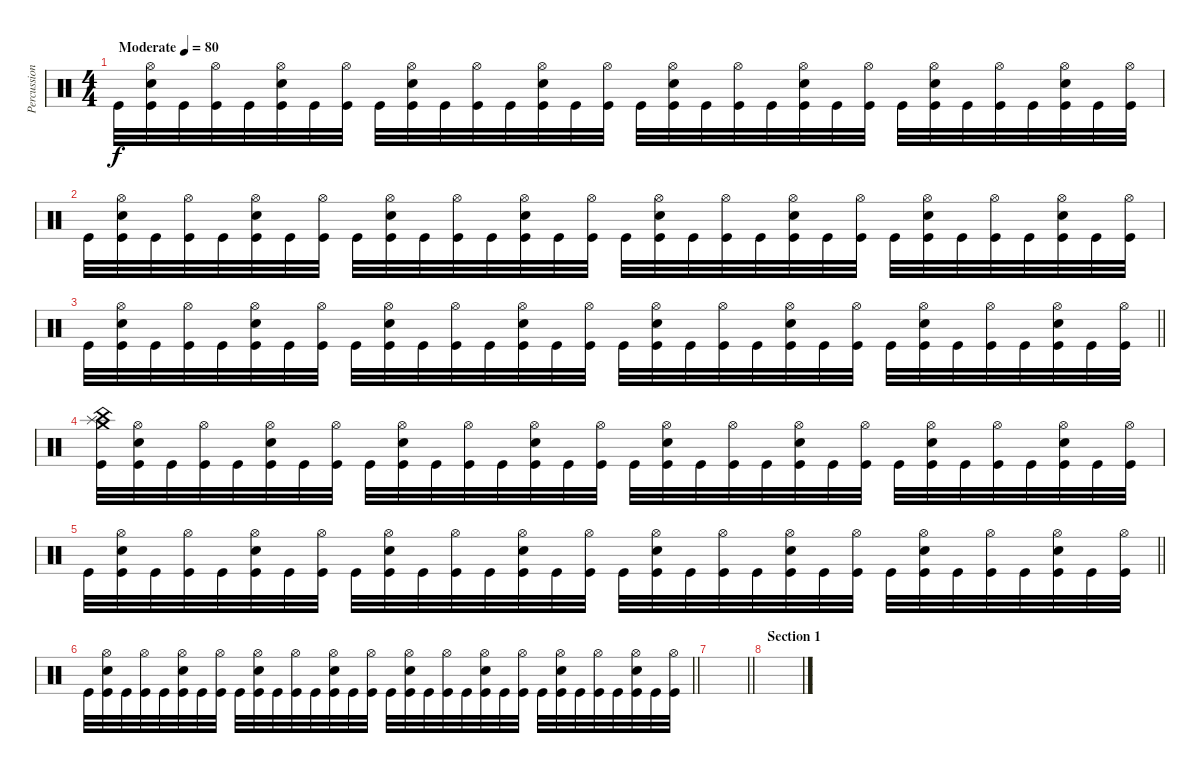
\track ("Percussion" "Percussion") {instrument percussion}
\staff {score}
\articulation defaults
\ts (4 4)
\tempo (80 "Moderate")
\clef neutral
\ks c "Kick (hit)".32{dy f}
("Snare (hit) 2" "Hi-Hat (open)" "Kick (hit)").32 "Kick (hit)".32 ("Hi-Hat (open)" "Kick (hit)").32 "Kick (hit)".32 ("Snare (hit) 2" "Hi-Hat (open)" "Kick (hit)").32 "Kick (hit)".32 ("Hi-Hat (open)" "Kick (hit)").32 "Kick (hit)".32 ("Snare (hit) 2" "Hi-Hat (open)" "Kick (hit)").32 "Kick (hit)".32 ("Hi-Hat (open)" "Kick (hit)").32 "Kick (hit)".32 ("Snare (hit) 2" "Hi-Hat (open)" "Kick (hit)").32 "Kick (hit)".32 ("Hi-Hat (open)" "Kick (hit)").32 "Kick (hit)".32 ("Snare (hit) 2" "Hi-Hat (open)" "Kick (hit)").32 "Kick (hit)".32 ("Hi-Hat (open)" "Kick (hit)").32 "Kick (hit)".32 ("Snare (hit) 2" "Hi-Hat (open)" "Kick (hit)").32 "Kick (hit)".32 ("Hi-Hat (open)" "Kick (hit)").32 "Kick (hit)".32 ("Snare (hit) 2" "Hi-Hat (open)" "Kick (hit)").32 "Kick (hit)".32 ("Hi-Hat (open)" "Kick (hit)").32 "Kick (hit)".32 ("Snare (hit) 2" "Hi-Hat (open)" "Kick (hit)").32 "Kick (hit)".32 ("Hi-Hat (open)" "Kick (hit)").32 |
"Kick (hit)".32 ("Snare (hit) 2" "Hi-Hat (open)" "Kick (hit)").32 "Kick (hit)".32 ("Hi-Hat (open)" "Kick (hit)").32 "Kick (hit)".32 ("Snare (hit) 2" "Hi-Hat (open)" "Kick (hit)").32 "Kick (hit)".32 ("Hi-Hat (open)" "Kick (hit)").32 "Kick (hit)".32 ("Snare (hit) 2" "Hi-Hat (open)" "Kick (hit)").32 "Kick (hit)".32 ("Hi-Hat (open)" "Kick (hit)").32 "Kick (hit)".32 ("Snare (hit) 2" "Hi-Hat (open)" "Kick (hit)").32 "Kick (hit)".32 ("Hi-Hat (open)" "Kick (hit)").32 "Kick (hit)".32 ("Snare (hit) 2" "Hi-Hat (open)" "Kick (hit)").32 "Kick (hit)".32 ("Hi-Hat (open)" "Kick (hit)").32 "Kick (hit)".32 ("Snare (hit) 2" "Hi-Hat (open)" "Kick (hit)").32 "Kick (hit)".32 ("Hi-Hat (open)" "Kick (hit)").32 "Kick (hit)".32 ("Snare (hit) 2" "Hi-Hat (open)" "Kick (hit)").32 "Kick (hit)".32 ("Hi-Hat (open)" "Kick (hit)").32 "Kick (hit)".32 ("Snare (hit) 2" "Hi-Hat (open)" "Kick (hit)").32 "Kick (hit)".32 ("Hi-Hat (open)" "Kick (hit)").32 |
\barLineRight lightlight "Kick (hit)".32
("Snare (hit) 2" "Hi-Hat (open)" "Kick (hit)").32 "Kick (hit)".32 ("Hi-Hat (open)" "Kick (hit)").32 "Kick (hit)".32 ("Snare (hit) 2" "Hi-Hat (open)" "Kick (hit)").32 "Kick (hit)".32 ("Hi-Hat (open)" "Kick (hit)").32 "Kick (hit)".32 ("Snare (hit) 2" "Hi-Hat (open)" "Kick (hit)").32 "Kick (hit)".32 ("Hi-Hat (open)" "Kick (hit)").32 "Kick (hit)".32 ("Snare (hit) 2" "Hi-Hat (open)" "Kick (hit)").32 "Kick (hit)".32 ("Hi-Hat (open)" "Kick (hit)").32 "Kick (hit)".32 ("Snare (hit) 2" "Hi-Hat (open)" "Kick (hit)").32 "Kick (hit)".32 ("Hi-Hat (open)" "Kick (hit)").32 "Kick (hit)".32 ("Snare (hit) 2" "Hi-Hat (open)" "Kick (hit)").32 "Kick (hit)".32 ("Hi-Hat (open)" "Kick (hit)").32 "Kick (hit)".32 ("Snare (hit) 2" "Hi-Hat (open)" "Kick (hit)").32 "Kick (hit)".32 ("Hi-Hat (open)" "Kick (hit)").32 "Kick (hit)".32 ("Snare (hit) 2" "Hi-Hat (open)" "Kick (hit)").32 "Kick (hit)".32 ("Hi-Hat (open)" "Kick (hit)").32 |
("Splash (hit)" "Crash medium (hit)" "China (hit)" "Kick (hit)").32 ("Snare (hit) 2" "Hi-Hat (open)" "Kick (hit)").32 "Kick (hit)".32 ("Hi-Hat (open)" "Kick (hit)").32 "Kick (hit)".32 ("Snare (hit) 2" "Hi-Hat (open)" "Kick (hit)").32 "Kick (hit)".32 ("Hi-Hat (open)" "Kick (hit)").32 "Kick (hit)".32 ("Snare (hit) 2" "Hi-Hat (open)" "Kick (hit)").32 "Kick (hit)".32 ("Hi-Hat (open)" "Kick (hit)").32 "Kick (hit)".32 ("Snare (hit) 2" "Hi-Hat (open)" "Kick (hit)").32 "Kick (hit)".32 ("Hi-Hat (open)" "Kick (hit)").32 "Kick (hit)".32 ("Snare (hit) 2" "Hi-Hat (open)" "Kick (hit)").32 "Kick (hit)".32 ("Hi-Hat (open)" "Kick (hit)").32 "Kick (hit)".32 ("Snare (hit) 2" "Hi-Hat (open)" "Kick (hit)").32 "Kick (hit)".32 ("Hi-Hat (open)" "Kick (hit)").32 "Kick (hit)".32 ("Snare (hit) 2" "Hi-Hat (open)" "Kick (hit)").32 "Kick (hit)".32 ("Hi-Hat (open)" "Kick (hit)").32 "Kick (hit)".32 ("Snare (hit) 2" "Hi-Hat (open)" "Kick (hit)").32 "Kick (hit)".32 ("Hi-Hat (open)" "Kick (hit)").32 |
\barLineRight lightlight "Kick (hit)".32
("Snare (hit) 2" "Hi-Hat (open)" "Kick (hit)").32 "Kick (hit)".32 ("Hi-Hat (open)" "Kick (hit)").32 "Kick (hit)".32 ("Snare (hit) 2" "Hi-Hat (open)" "Kick (hit)").32 "Kick (hit)".32 ("Hi-Hat (open)" "Kick (hit)").32 "Kick (hit)".32 ("Snare (hit) 2" "Hi-Hat (open)" "Kick (hit)").32 "Kick (hit)".32 ("Hi-Hat (open)" "Kick (hit)").32 "Kick (hit)".32 ("Snare (hit) 2" "Hi-Hat (open)" "Kick (hit)").32 "Kick (hit)".32 ("Hi-Hat (open)" "Kick (hit)").32 "Kick (hit)".32 ("Snare (hit) 2" "Hi-Hat (open)" "Kick (hit)").32 "Kick (hit)".32 ("Hi-Hat (open)" "Kick (hit)").32 "Kick (hit)".32 ("Snare (hit) 2" "Hi-Hat (open)" "Kick (hit)").32 "Kick (hit)".32 ("Hi-Hat (open)" "Kick (hit)").32 "Kick (hit)".32 ("Snare (hit) 2" "Hi-Hat (open)" "Kick (hit)").32 "Kick (hit)".32 ("Hi-Hat (open)" "Kick (hit)").32 "Kick (hit)".32 ("Snare (hit) 2" "Hi-Hat (open)" "Kick (hit)").32 "Kick (hit)".32 ("Hi-Hat (open)" "Kick (hit)").32 |
\barLineRight lightlight "Kick (hit)".32
("Snare (hit) 2" "Hi-Hat (open)" "Kick (hit)").32 "Kick (hit)".32 ("Hi-Hat (open)" "Kick (hit)").32 "Kick (hit)".32 ("Snare (hit) 2" "Hi-Hat (open)" "Kick (hit)").32 "Kick (hit)".32 ("Hi-Hat (open)" "Kick (hit)").32 "Kick (hit)".32 ("Snare (hit) 2" "Hi-Hat (open)" "Kick (hit)").32 "Kick (hit)".32 ("Hi-Hat (open)" "Kick (hit)").32 "Kick (hit)".32 ("Snare (hit) 2" "Hi-Hat (open)" "Kick (hit)").32 "Kick (hit)".32 ("Hi-Hat (open)" "Kick (hit)").32 "Kick (hit)".32 ("Snare (hit) 2" "Hi-Hat (open)" "Kick (hit)").32 "Kick (hit)".32 ("Hi-Hat (open)" "Kick (hit)").32 "Kick (hit)".32 ("Snare (hit) 2" "Hi-Hat (open)" "Kick (hit)").32 "Kick (hit)".32 ("Hi-Hat (open)" "Kick (hit)").32 "Kick (hit)".32 ("Snare (hit) 2" "Hi-Hat (open)" "Kick (hit)").32 "Kick (hit)".32 ("Hi-Hat (open)" "Kick (hit)").32 "Kick (hit)".32 ("Snare (hit) 2" "Hi-Hat (open)" "Kick (hit)").32 "Kick (hit)".32 ("Hi-Hat (open)" "Kick (hit)").32 |
\barLineRight lightlight
|
\section ("" "Section 1")
